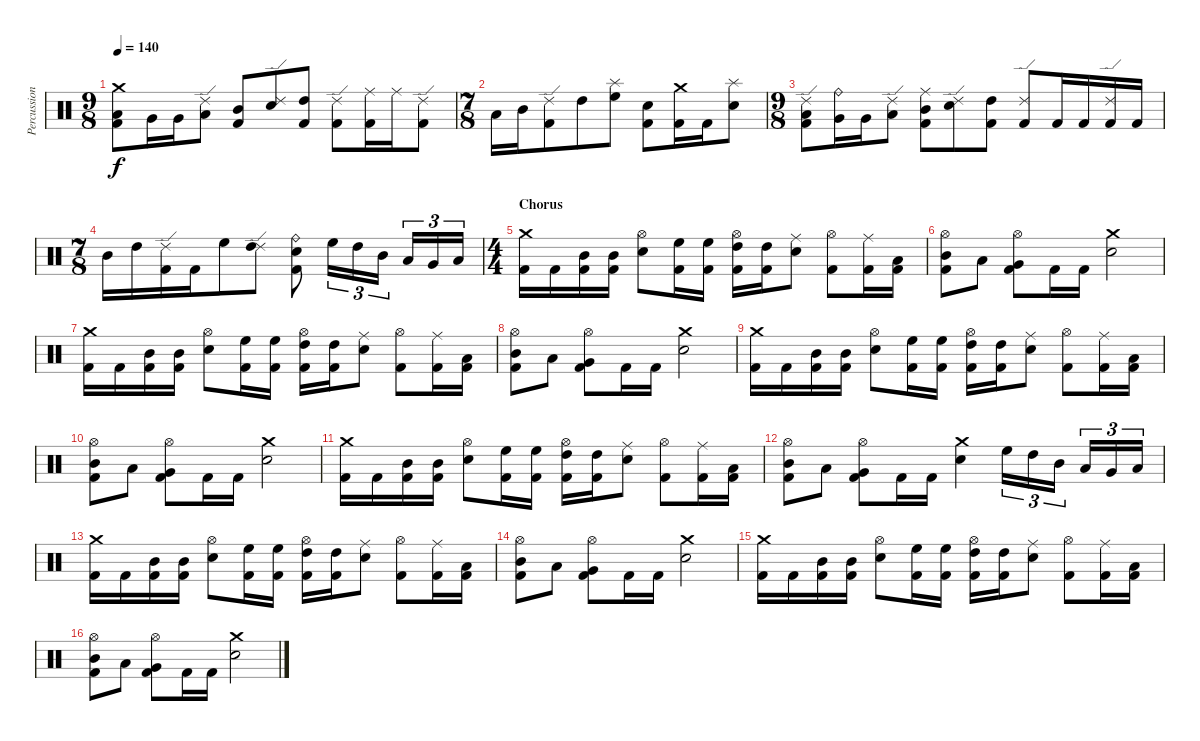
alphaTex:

\track ("Percussion" "Percussion") {instrument percussion}
\staff {score}
\articulation defaults
\ts (9 8)
\tempo 140
\clef neutral
\ks c
("Crash medium (hit)" "Low Floor Tom (hit)" "Kick (hit) 2").8{dy f} "Very Low Tom (hit)".16 "Very Low Tom (hit)".16 ("Ride (edge) 2" "Low Tom (hit)").8 ("Mid Tom (hit)" "Kick (hit) 2").8 ("Ride (edge) 2" "Electric Snare (hit)").8 ("High Tom (hit)" "Kick (hit) 2").8 ("Ride (edge) 2" "Kick (hit) 2").8 ("Ride (middle)" "Kick (hit) 2").16 "Ride (middle)".16 ("Ride (edge) 2" "Kick (hit) 2").8 |
\ts (7 8)
"Low Tom (hit)".16 "Mid Tom (hit)".16 ("Ride (edge) 2" "Kick (hit) 2").8 "High Tom (hit)".8 ("Splash (hit)" "High Floor Tom (hit)").8 ("Electric Snare (hit)" "Kick (hit) 2").8 ("Crash medium (hit)" "Kick (hit) 2").16 "Kick (hit) 2".16 ("Splash (hit)" "Electric Snare (hit)").8 |
\ts (9 8)
("Ride (edge) 2" "Low Floor Tom (hit)" "Kick (hit) 2").8 ("Ride (bell)" "Very Low Tom (hit)").16 "Very Low Tom (hit)".16 ("Ride (edge) 2" "Low Tom (hit)").8 ("Ride (middle)" "Mid Tom (hit)" "Kick (hit) 2").8 ("Ride (edge) 2" "Electric Snare (hit)").8 ("High Tom (hit)" "Kick (hit) 2").8 ("Ride (edge) 2" "Kick (hit) 2").8 "Kick (hit) 2".16 "Kick (hit) 2".16 ("Ride (edge) 2" "Kick (hit) 2").16 "Kick (hit) 2".16 |
\ts (7 8)
"Mid Tom (hit)".16 "High Tom (hit)".16 ("Ride (edge) 2" "Kick (hit) 2").16 "Kick (hit) 2".16 "High Floor Tom (hit)".8 ("Ride (edge) 2" "High Tom (hit)").8 ("Ride (bell)" "Electric Snare (hit)" "Kick (hit) 2").8 "High Floor Tom (hit)".16{tu (3 2)} "High Tom (hit)".16{tu (3 2)} "Mid Tom (hit)".16{tu (3 2)} "Low Tom (hit)".16{tu (3 2)} "Very Low Tom (hit)".16{tu (3 2)} "Low Floor Tom (hit)".16{tu (3 2)} |
\ts (4 4)
\section ("" "Chorus")
("Crash medium (hit)" "Kick (hit) 2").16 "Kick (hit) 2".16 ("Mid Tom (hit)" "Kick (hit) 2").16 ("Mid Tom (hit)" "Kick (hit) 2").16 ("Hi-Hat (open)" "Electric Snare (hit)").8 ("High Floor Tom (hit)" "Kick (hit) 2").16 ("High Floor Tom (hit)" "Kick (hit) 2").16 ("Hi-Hat (open)" "High Tom (hit)" "Kick (hit) 2").16 ("High Tom (hit)" "Kick (hit) 2").16 ("Ride (middle)" "Electric Snare (hit)").8 ("Hi-Hat (open)" "Kick (hit) 2").8 ("Ride (middle)" "Kick (hit) 2").16 ("Low Tom (hit)" "Kick (hit) 2").16 |
("Hi-Hat (open)" "Mid Tom (hit)" "Kick (hit) 2").8 "Low Tom (hit)".8 ("Hi-Hat (open)" "Very Low Tom (hit)" "Kick (hit) 2").8 "Kick (hit) 2".16 "Kick (hit) 2".16 ("Crash medium (hit)" "Electric Snare (hit)").2 |
("Crash medium (hit)" "Kick (hit) 2").16 "Kick (hit) 2".16 ("Mid Tom (hit)" "Kick (hit) 2").16 ("Mid Tom (hit)" "Kick (hit) 2").16 ("Hi-Hat (open)" "Electric Snare (hit)").8 ("High Floor Tom (hit)" "Kick (hit) 2").16 ("High Floor Tom (hit)" "Kick (hit) 2").16 ("Hi-Hat (open)" "High Tom (hit)" "Kick (hit) 2").16 ("High Tom (hit)" "Kick (hit) 2").16 ("Ride (middle)" "Electric Snare (hit)").8 ("Hi-Hat (open)" "Kick (hit) 2").8 ("Ride (middle)" "Kick (hit) 2").16 ("Low Tom (hit)" "Kick (hit) 2").16 |
("Hi-Hat (open)" "Mid Tom (hit)" "Kick (hit) 2").8 "Low Tom (hit)".8 ("Hi-Hat (open)" "Very Low Tom (hit)" "Kick (hit) 2").8 "Kick (hit) 2".16 "Kick (hit) 2".16 ("Crash medium (hit)" "Electric Snare (hit)").2 |
("Crash medium (hit)" "Kick (hit) 2").16 "Kick (hit) 2".16 ("Mid Tom (hit)" "Kick (hit) 2").16 ("Mid Tom (hit)" "Kick (hit) 2").16 ("Hi-Hat (open)" "Electric Snare (hit)").8 ("High Floor Tom (hit)" "Kick (hit) 2").16 ("High Floor Tom (hit)" "Kick (hit) 2").16 ("Hi-Hat (open)" "High Tom (hit)" "Kick (hit) 2").16 ("High Tom (hit)" "Kick (hit) 2").16 ("Ride (middle)" "Electric Snare (hit)").8 ("Hi-Hat (open)" "Kick (hit) 2").8 ("Ride (middle)" "Kick (hit) 2").16 ("Low Tom (hit)" "Kick (hit) 2").16 |
("Hi-Hat (open)" "Mid Tom (hit)" "Kick (hit) 2").8 "Low Tom (hit)".8 ("Hi-Hat (open)" "Very Low Tom (hit)" "Kick (hit) 2").8 "Kick (hit) 2".16 "Kick (hit) 2".16 ("Crash medium (hit)" "Electric Snare (hit)").2 |
("Crash medium (hit)" "Kick (hit) 2").16 "Kick (hit) 2".16 ("Mid Tom (hit)" "Kick (hit) 2").16 ("Mid Tom (hit)" "Kick (hit) 2").16 ("Hi-Hat (open)" "Electric Snare (hit)").8 ("High Floor Tom (hit)" "Kick (hit) 2").16 ("High Floor Tom (hit)" "Kick (hit) 2").16 ("Hi-Hat (open)" "High Tom (hit)" "Kick (hit) 2").16 ("High Tom (hit)" "Kick (hit) 2").16 ("Ride (middle)" "Electric Snare (hit)").8 ("Hi-Hat (open)" "Kick (hit) 2").8 ("Ride (middle)" "Kick (hit) 2").16 ("Low Tom (hit)" "Kick (hit) 2").16 |
("Hi-Hat (open)" "Mid Tom (hit)" "Kick (hit) 2").8 "Low Tom (hit)".8 ("Hi-Hat (open)" "Very Low Tom (hit)" "Kick (hit) 2").8 "Kick (hit) 2".16 "Kick (hit) 2".16 ("Crash medium (hit)" "Electric Snare (hit)").4 "High Floor Tom (hit)".16{tu (3 2)} "High Tom (hit)".16{tu (3 2)} "Mid Tom (hit)".16{tu (3 2)} "Low Tom (hit)".16{tu (3 2)} "Very Low Tom (hit)".16{tu (3 2)} "Low Floor Tom (hit)".16{tu (3 2)} |
("Crash medium (hit)" "Kick (hit) 2").16 "Kick (hit) 2".16 ("Mid Tom (hit)" "Kick (hit) 2").16 ("Mid Tom (hit)" "Kick (hit) 2").16 ("Hi-Hat (open)" "Electric Snare (hit)").8 ("High Floor Tom (hit)" "Kick (hit) 2").16 ("High Floor Tom (hit)" "Kick (hit) 2").16 ("Hi-Hat (open)" "High Tom (hit)" "Kick (hit) 2").16 ("High Tom (hit)" "Kick (hit) 2").16 ("Ride (middle)" "Electric Snare (hit)").8 ("Hi-Hat (open)" "Kick (hit) 2").8 ("Ride (middle)" "Kick (hit) 2").16 ("Low Tom (hit)" "Kick (hit) 2").16 |
("Hi-Hat (open)" "Mid Tom (hit)" "Kick (hit) 2").8 "Low Tom (hit)".8 ("Hi-Hat (open)" "Very Low Tom (hit)" "Kick (hit) 2").8 "Kick (hit) 2".16 "Kick (hit) 2".16 ("Crash medium (hit)" "Electric Snare (hit)").2 |
("Crash medium (hit)" "Kick (hit) 2").16 "Kick (hit) 2".16 ("Mid Tom (hit)" "Kick (hit) 2").16 ("Mid Tom (hit)" "Kick (hit) 2").16 ("Hi-Hat (open)" "Electric Snare (hit)").8 ("High Floor Tom (hit)" "Kick (hit) 2").16 ("High Floor Tom (hit)" "Kick (hit) 2").16 ("Hi-Hat (open)" "High Tom (hit)" "Kick (hit) 2").16 ("High Tom (hit)" "Kick (hit) 2").16 ("Ride (middle)" "Electric Snare (hit)").8 ("Hi-Hat (open)" "Kick (hit) 2").8 ("Ride (middle)" "Kick (hit) 2").16 ("Low Tom (hit)" "Kick (hit) 2").16 |
("Hi-Hat (open)" "Mid Tom (hit)" "Kick (hit) 2").8 "Low Tom (hit)".8 ("Hi-Hat (open)" "Very Low Tom (hit)" "Kick (hit) 2").8 "Kick (hit) 2".16 "Kick (hit) 2".16 ("Crash medium (hit)" "Electric Snare (hit)").2
